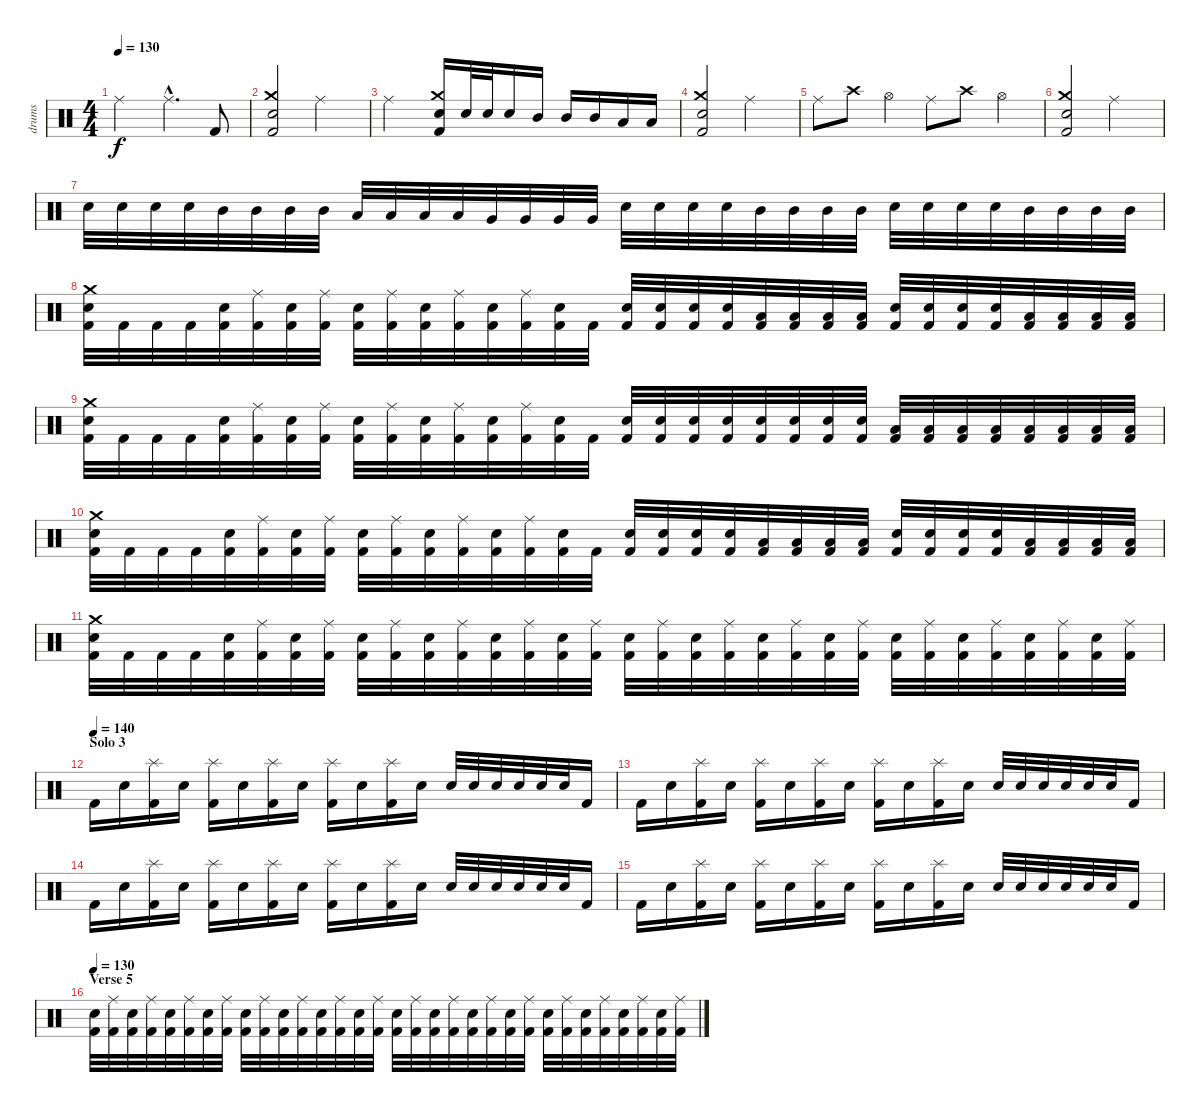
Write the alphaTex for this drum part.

\track ("drums" "drums") {instrument percussion}
\staff {score}
\articulation defaults
\ts (4 4)
\tempo 130
\clef neutral
\ks c "Ride (middle)".2{dy f} "Ride (middle)"{hac}.4{d} "Kick (hit) 2".8
|
("Crash medium (hit)" "Electric Snare (hit)" "Kick (hit) 2").2 "Ride (middle)".2 |
"Ride (middle)".2 ("Crash medium (hit)" "Electric Snare (hit)" "Kick (hit) 2").16 "Electric Snare (hit)".32 "Electric Snare (hit)".32 "Electric Snare (hit)".16 "Mid Tom (hit)".16 "Mid Tom (hit)".16 "Mid Tom (hit)".16 "Low Tom (hit)".16 "Low Tom (hit)".16 |
("Crash medium (hit)" "Electric Snare (hit)" "Kick (hit) 2").2 "Ride (middle)".2 |
"Ride (middle)".8 "Crash high (hit)".8 "Hi-Hat (open)".4 "Ride (middle)".8 "Crash high (hit)".8 "Hi-Hat (open)".4 |
("Crash medium (hit)" "Electric Snare (hit)" "Kick (hit) 2").2 "Ride (middle)".2 |
"Electric Snare (hit)".32 "Electric Snare (hit)".32 "Electric Snare (hit)".32 "Electric Snare (hit)".32 "Mid Tom (hit)".32 "Mid Tom (hit)".32 "Mid Tom (hit)".32 "Mid Tom (hit)".32 "Low Tom (hit)".32 "Low Tom (hit)".32 "Low Tom (hit)".32 "Low Tom (hit)".32 "Very Low Tom (hit)".32 "Very Low Tom (hit)".32 "Very Low Tom (hit)".32 "Very Low Tom (hit)".32 "Electric Snare (hit)".32 "Electric Snare (hit)".32 "Electric Snare (hit)".32 "Electric Snare (hit)".32 "Mid Tom (hit)".32 "Mid Tom (hit)".32 "Mid Tom (hit)".32 "Mid Tom (hit)".32 "Electric Snare (hit)".32 "Electric Snare (hit)".32 "Electric Snare (hit)".32 "Electric Snare (hit)".32 "Mid Tom (hit)".32 "Mid Tom (hit)".32 "Mid Tom (hit)".32 "Mid Tom (hit)".32 |
("Crash medium (hit)" "Electric Snare (hit)" "Kick (hit) 2").32 "Kick (hit) 2".32 "Kick (hit) 2".32 "Kick (hit) 2".32 ("Electric Snare (hit)" "Kick (hit) 2").32 ("Ride (middle)" "Kick (hit) 2").32 ("Electric Snare (hit)" "Kick (hit) 2").32 ("Ride (middle)" "Kick (hit) 2").32 ("Electric Snare (hit)" "Kick (hit) 2").32 ("Ride (middle)" "Kick (hit) 2").32 ("Electric Snare (hit)" "Kick (hit) 2").32 ("Ride (middle)" "Kick (hit) 2").32 ("Electric Snare (hit)" "Kick (hit) 2").32 ("Ride (middle)" "Kick (hit) 2").32 ("Electric Snare (hit)" "Kick (hit) 2").32 "Kick (hit) 2".32 ("Electric Snare (hit)" "Kick (hit) 2").32 ("Electric Snare (hit)" "Kick (hit) 2").32 ("Electric Snare (hit)" "Kick (hit) 2").32 ("Electric Snare (hit)" "Kick (hit) 2").32 ("Low Tom (hit)" "Kick (hit) 2").32 ("Low Tom (hit)" "Kick (hit) 2").32 ("Low Tom (hit)" "Kick (hit) 2").32 ("Low Tom (hit)" "Kick (hit) 2").32 ("Electric Snare (hit)" "Kick (hit) 2").32 ("Electric Snare (hit)" "Kick (hit) 2").32 ("Electric Snare (hit)" "Kick (hit) 2").32 ("Electric Snare (hit)" "Kick (hit) 2").32 ("Low Tom (hit)" "Kick (hit) 2").32 ("Low Tom (hit)" "Kick (hit) 2").32 ("Low Tom (hit)" "Kick (hit) 2").32 ("Low Tom (hit)" "Kick (hit) 2").32 |
("Crash medium (hit)" "Electric Snare (hit)" "Kick (hit) 2").32 "Kick (hit) 2".32 "Kick (hit) 2".32 "Kick (hit) 2".32 ("Electric Snare (hit)" "Kick (hit) 2").32 ("Ride (middle)" "Kick (hit) 2").32 ("Electric Snare (hit)" "Kick (hit) 2").32 ("Ride (middle)" "Kick (hit) 2").32 ("Electric Snare (hit)" "Kick (hit) 2").32 ("Ride (middle)" "Kick (hit) 2").32 ("Electric Snare (hit)" "Kick (hit) 2").32 ("Ride (middle)" "Kick (hit) 2").32 ("Electric Snare (hit)" "Kick (hit) 2").32 ("Ride (middle)" "Kick (hit) 2").32 ("Electric Snare (hit)" "Kick (hit) 2").32 "Kick (hit) 2".32 ("Electric Snare (hit)" "Kick (hit) 2").32 ("Electric Snare (hit)" "Kick (hit) 2").32 ("Electric Snare (hit)" "Kick (hit) 2").32 ("Electric Snare (hit)" "Kick (hit) 2").32 ("Electric Snare (hit)" "Kick (hit) 2").32 ("Electric Snare (hit)" "Kick (hit) 2").32 ("Electric Snare (hit)" "Kick (hit) 2").32 ("Electric Snare (hit)" "Kick (hit) 2").32 ("Low Tom (hit)" "Kick (hit) 2").32 ("Low Tom (hit)" "Kick (hit) 2").32 ("Low Tom (hit)" "Kick (hit) 2").32 ("Low Tom (hit)" "Kick (hit) 2").32 ("Low Tom (hit)" "Kick (hit) 2").32 ("Low Tom (hit)" "Kick (hit) 2").32 ("Low Tom (hit)" "Kick (hit) 2").32 ("Low Tom (hit)" "Kick (hit) 2").32 |
("Crash medium (hit)" "Electric Snare (hit)" "Kick (hit) 2").32 "Kick (hit) 2".32 "Kick (hit) 2".32 "Kick (hit) 2".32 ("Electric Snare (hit)" "Kick (hit) 2").32 ("Ride (middle)" "Kick (hit) 2").32 ("Electric Snare (hit)" "Kick (hit) 2").32 ("Ride (middle)" "Kick (hit) 2").32 ("Electric Snare (hit)" "Kick (hit) 2").32 ("Ride (middle)" "Kick (hit) 2").32 ("Electric Snare (hit)" "Kick (hit) 2").32 ("Ride (middle)" "Kick (hit) 2").32 ("Electric Snare (hit)" "Kick (hit) 2").32 ("Ride (middle)" "Kick (hit) 2").32 ("Electric Snare (hit)" "Kick (hit) 2").32 "Kick (hit) 2".32 ("Electric Snare (hit)" "Kick (hit) 2").32 ("Electric Snare (hit)" "Kick (hit) 2").32 ("Electric Snare (hit)" "Kick (hit) 2").32 ("Electric Snare (hit)" "Kick (hit) 2").32 ("Low Tom (hit)" "Kick (hit) 2").32 ("Low Tom (hit)" "Kick (hit) 2").32 ("Low Tom (hit)" "Kick (hit) 2").32 ("Low Tom (hit)" "Kick (hit) 2").32 ("Electric Snare (hit)" "Kick (hit) 2").32 ("Electric Snare (hit)" "Kick (hit) 2").32 ("Electric Snare (hit)" "Kick (hit) 2").32 ("Electric Snare (hit)" "Kick (hit) 2").32 ("Low Tom (hit)" "Kick (hit) 2").32 ("Low Tom (hit)" "Kick (hit) 2").32 ("Low Tom (hit)" "Kick (hit) 2").32 ("Low Tom (hit)" "Kick (hit) 2").32 |
("Crash medium (hit)" "Electric Snare (hit)" "Kick (hit) 2").32 "Kick (hit) 2".32 "Kick (hit) 2".32 "Kick (hit) 2".32 ("Electric Snare (hit)" "Kick (hit) 2").32 ("Ride (middle)" "Kick (hit) 2").32 ("Electric Snare (hit)" "Kick (hit) 2").32 ("Ride (middle)" "Kick (hit) 2").32 ("Electric Snare (hit)" "Kick (hit) 2").32 ("Ride (middle)" "Kick (hit) 2").32 ("Electric Snare (hit)" "Kick (hit) 2").32 ("Ride (middle)" "Kick (hit) 2").32 ("Electric Snare (hit)" "Kick (hit) 2").32 ("Ride (middle)" "Kick (hit) 2").32 ("Electric Snare (hit)" "Kick (hit) 2").32 ("Ride (middle)" "Kick (hit) 2").32 ("Electric Snare (hit)" "Kick (hit) 2").32 ("Ride (middle)" "Kick (hit) 2").32 ("Electric Snare (hit)" "Kick (hit) 2").32 ("Ride (middle)" "Kick (hit) 2").32 ("Electric Snare (hit)" "Kick (hit) 2").32 ("Ride (middle)" "Kick (hit) 2").32 ("Electric Snare (hit)" "Kick (hit) 2").32 ("Ride (middle)" "Kick (hit) 2").32 ("Electric Snare (hit)" "Kick (hit) 2").32 ("Ride (middle)" "Kick (hit) 2").32 ("Electric Snare (hit)" "Kick (hit) 2").32 ("Ride (middle)" "Kick (hit) 2").32 ("Electric Snare (hit)" "Kick (hit) 2").32 ("Ride (middle)" "Kick (hit) 2").32 ("Electric Snare (hit)" "Kick (hit) 2").32 ("Ride (middle)" "Kick (hit) 2").32 |
\section ("" "Solo 3")
\tempo (140)
"Kick (hit) 2".16 "Electric Snare (hit)".16 ("Splash (hit)" "Kick (hit) 2").16 "Electric Snare (hit)".16 ("Splash (hit)" "Kick (hit) 2").16 "Electric Snare (hit)".16 ("Splash (hit)" "Kick (hit) 2").16 "Electric Snare (hit)".16 ("Splash (hit)" "Kick (hit) 2").16 "Electric Snare (hit)".16 ("Splash (hit)" "Kick (hit) 2").16 "Electric Snare (hit)".16 "Electric Snare (hit)".32 "Electric Snare (hit)".32 "Electric Snare (hit)".32 "Electric Snare (hit)".32 "Electric Snare (hit)".32 "Electric Snare (hit)".32 "Kick (hit) 2".16 |
"Kick (hit) 2".16 "Electric Snare (hit)".16 ("Splash (hit)" "Kick (hit) 2").16 "Electric Snare (hit)".16 ("Splash (hit)" "Kick (hit) 2").16 "Electric Snare (hit)".16 ("Splash (hit)" "Kick (hit) 2").16 "Electric Snare (hit)".16 ("Splash (hit)" "Kick (hit) 2").16 "Electric Snare (hit)".16 ("Splash (hit)" "Kick (hit) 2").16 "Electric Snare (hit)".16 "Electric Snare (hit)".32 "Electric Snare (hit)".32 "Electric Snare (hit)".32 "Electric Snare (hit)".32 "Electric Snare (hit)".32 "Electric Snare (hit)".32 "Kick (hit) 2".16 |
"Kick (hit) 2".16 "Electric Snare (hit)".16 ("Splash (hit)" "Kick (hit) 2").16 "Electric Snare (hit)".16 ("Splash (hit)" "Kick (hit) 2").16 "Electric Snare (hit)".16 ("Splash (hit)" "Kick (hit) 2").16 "Electric Snare (hit)".16 ("Splash (hit)" "Kick (hit) 2").16 "Electric Snare (hit)".16 ("Splash (hit)" "Kick (hit) 2").16 "Electric Snare (hit)".16 "Electric Snare (hit)".32 "Electric Snare (hit)".32 "Electric Snare (hit)".32 "Electric Snare (hit)".32 "Electric Snare (hit)".32 "Electric Snare (hit)".32 "Kick (hit) 2".16 |
"Kick (hit) 2".16 "Electric Snare (hit)".16 ("Splash (hit)" "Kick (hit) 2").16 "Electric Snare (hit)".16 ("Splash (hit)" "Kick (hit) 2").16 "Electric Snare (hit)".16 ("Splash (hit)" "Kick (hit) 2").16 "Electric Snare (hit)".16 ("Splash (hit)" "Kick (hit) 2").16 "Electric Snare (hit)".16 ("Splash (hit)" "Kick (hit) 2").16 "Electric Snare (hit)".16 "Electric Snare (hit)".32 "Electric Snare (hit)".32 "Electric Snare (hit)".32 "Electric Snare (hit)".32 "Electric Snare (hit)".32 "Electric Snare (hit)".32 "Kick (hit) 2".16 |
\section ("" "Verse 5")
\tempo 130
("Electric Snare (hit)" "Kick (hit) 2").32 ("Ride (middle)" "Kick (hit) 2").32 ("Electric Snare (hit)" "Kick (hit) 2").32 ("Ride (middle)" "Kick (hit) 2").32 ("Electric Snare (hit)" "Kick (hit) 2").32 ("Ride (middle)" "Kick (hit) 2").32 ("Electric Snare (hit)" "Kick (hit) 2").32 ("Ride (middle)" "Kick (hit) 2").32 ("Electric Snare (hit)" "Kick (hit) 2").32 ("Ride (middle)" "Kick (hit) 2").32 ("Electric Snare (hit)" "Kick (hit) 2").32 ("Ride (middle)" "Kick (hit) 2").32 ("Electric Snare (hit)" "Kick (hit) 2").32 ("Ride (middle)" "Kick (hit) 2").32 ("Electric Snare (hit)" "Kick (hit) 2").32 ("Ride (middle)" "Kick (hit) 2").32 ("Electric Snare (hit)" "Kick (hit) 2").32 ("Ride (middle)" "Kick (hit) 2").32 ("Electric Snare (hit)" "Kick (hit) 2").32 ("Ride (middle)" "Kick (hit) 2").32 ("Electric Snare (hit)" "Kick (hit) 2").32 ("Ride (middle)" "Kick (hit) 2").32 ("Electric Snare (hit)" "Kick (hit) 2").32 ("Ride (middle)" "Kick (hit) 2").32 ("Electric Snare (hit)" "Kick (hit) 2").32 ("Ride (middle)" "Kick (hit) 2").32 ("Electric Snare (hit)" "Kick (hit) 2").32 ("Ride (middle)" "Kick (hit) 2").32 ("Electric Snare (hit)" "Kick (hit) 2").32 ("Ride (middle)" "Kick (hit) 2").32 ("Electric Snare (hit)" "Kick (hit) 2").32 ("Ride (middle)" "Kick (hit) 2").32
